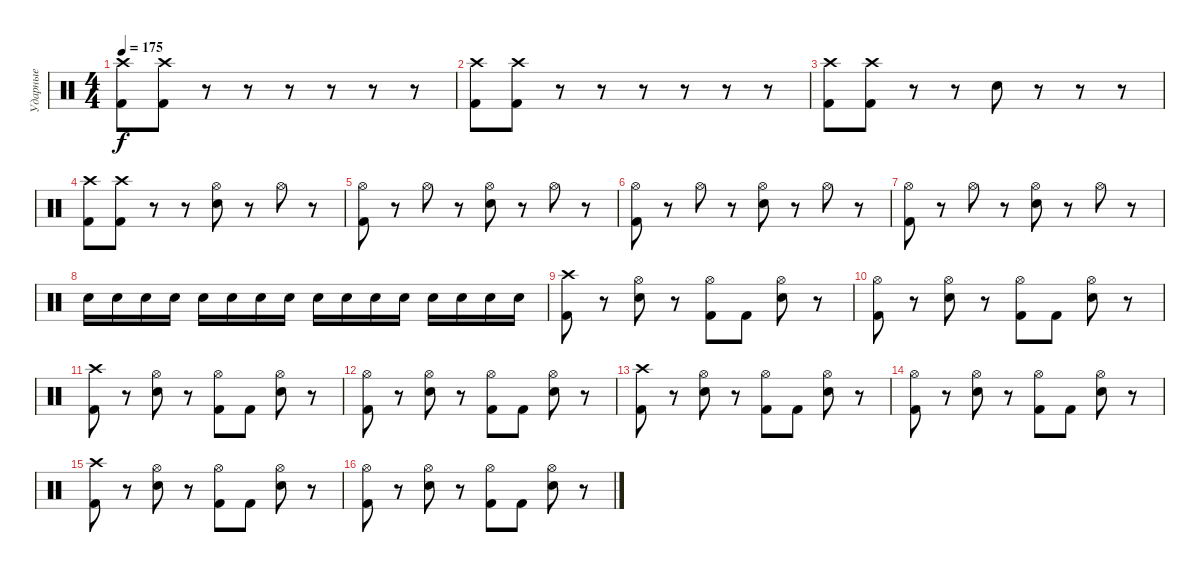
\track ("Ударные" "Ударные") {instrument percussion}
\staff {score}
\articulation defaults
\ts (4 4)
\tempo 175
\clef neutral
\ks c
("Kick (hit) 2" "Crash high (hit)").8{dy f} ("Kick (hit) 2" "Crash high (hit)").8 r.8 r.8 r.8 r.8 r.8 r.8 |
("Kick (hit) 2" "Crash high (hit)").8 ("Kick (hit) 2" "Crash high (hit)").8 r.8 r.8 r.8 r.8 r.8 r.8 |
("Kick (hit) 2" "Crash high (hit)").8 ("Kick (hit) 2" "Crash high (hit)").8 r.8 r.8 "Electric Snare (hit)".8 r.8 r.8 r.8 |
("Kick (hit) 2" "Crash high (hit)").8 ("Kick (hit) 2" "Crash high (hit)").8 r.8 r.8 ("Electric Snare (hit)" "Hi-Hat (open)").8 r.8 "Hi-Hat (open)".8 r.8 |
("Kick (hit) 2" "Hi-Hat (open)").8 r.8 "Hi-Hat (open)".8 r.8 ("Electric Snare (hit)" "Hi-Hat (open)").8 r.8 "Hi-Hat (open)".8 r.8 |
("Kick (hit) 2" "Hi-Hat (open)").8 r.8 "Hi-Hat (open)".8 r.8 ("Electric Snare (hit)" "Hi-Hat (open)").8 r.8 "Hi-Hat (open)".8 r.8 |
("Kick (hit) 2" "Hi-Hat (open)").8 r.8 "Hi-Hat (open)".8 r.8 ("Electric Snare (hit)" "Hi-Hat (open)").8 r.8 "Hi-Hat (open)".8 r.8 |
"Electric Snare (hit)".16 "Electric Snare (hit)".16 "Electric Snare (hit)".16 "Electric Snare (hit)".16 "Electric Snare (hit)".16 "Electric Snare (hit)".16 "Electric Snare (hit)".16 "Electric Snare (hit)".16 "Electric Snare (hit)".16 "Electric Snare (hit)".16 "Electric Snare (hit)".16 "Electric Snare (hit)".16 "Electric Snare (hit)".16 "Electric Snare (hit)".16 "Electric Snare (hit)".16 "Electric Snare (hit)".16 |
("Kick (hit) 2" "Crash high (hit)").8 r.8 ("Electric Snare (hit)" "Hi-Hat (open)").8 r.8 ("Kick (hit) 2" "Hi-Hat (open)").8 "Kick (hit) 2".8 ("Electric Snare (hit)" "Hi-Hat (open)").8 r.8 |
("Kick (hit) 2" "Hi-Hat (open)").8 r.8 ("Electric Snare (hit)" "Hi-Hat (open)").8 r.8 ("Kick (hit) 2" "Hi-Hat (open)").8 "Kick (hit) 2".8 ("Electric Snare (hit)" "Hi-Hat (open)").8 r.8 |
("Kick (hit) 2" "Crash high (hit)").8 r.8 ("Electric Snare (hit)" "Hi-Hat (open)").8 r.8 ("Kick (hit) 2" "Hi-Hat (open)").8 "Kick (hit) 2".8 ("Electric Snare (hit)" "Hi-Hat (open)").8 r.8 |
("Kick (hit) 2" "Hi-Hat (open)").8 r.8 ("Electric Snare (hit)" "Hi-Hat (open)").8 r.8 ("Kick (hit) 2" "Hi-Hat (open)").8 "Kick (hit) 2".8 ("Electric Snare (hit)" "Hi-Hat (open)").8 r.8 |
("Kick (hit) 2" "Crash high (hit)").8 r.8 ("Electric Snare (hit)" "Hi-Hat (open)").8 r.8 ("Kick (hit) 2" "Hi-Hat (open)").8 "Kick (hit) 2".8 ("Electric Snare (hit)" "Hi-Hat (open)").8 r.8 |
("Kick (hit) 2" "Hi-Hat (open)").8 r.8 ("Electric Snare (hit)" "Hi-Hat (open)").8 r.8 ("Kick (hit) 2" "Hi-Hat (open)").8 "Kick (hit) 2".8 ("Electric Snare (hit)" "Hi-Hat (open)").8 r.8 |
("Kick (hit) 2" "Crash high (hit)").8 r.8 ("Electric Snare (hit)" "Hi-Hat (open)").8 r.8 ("Kick (hit) 2" "Hi-Hat (open)").8 "Kick (hit) 2".8 ("Electric Snare (hit)" "Hi-Hat (open)").8 r.8 |
("Kick (hit) 2" "Hi-Hat (open)").8 r.8 ("Electric Snare (hit)" "Hi-Hat (open)").8 r.8 ("Kick (hit) 2" "Hi-Hat (open)").8 "Kick (hit) 2".8 ("Electric Snare (hit)" "Hi-Hat (open)").8 r.8
